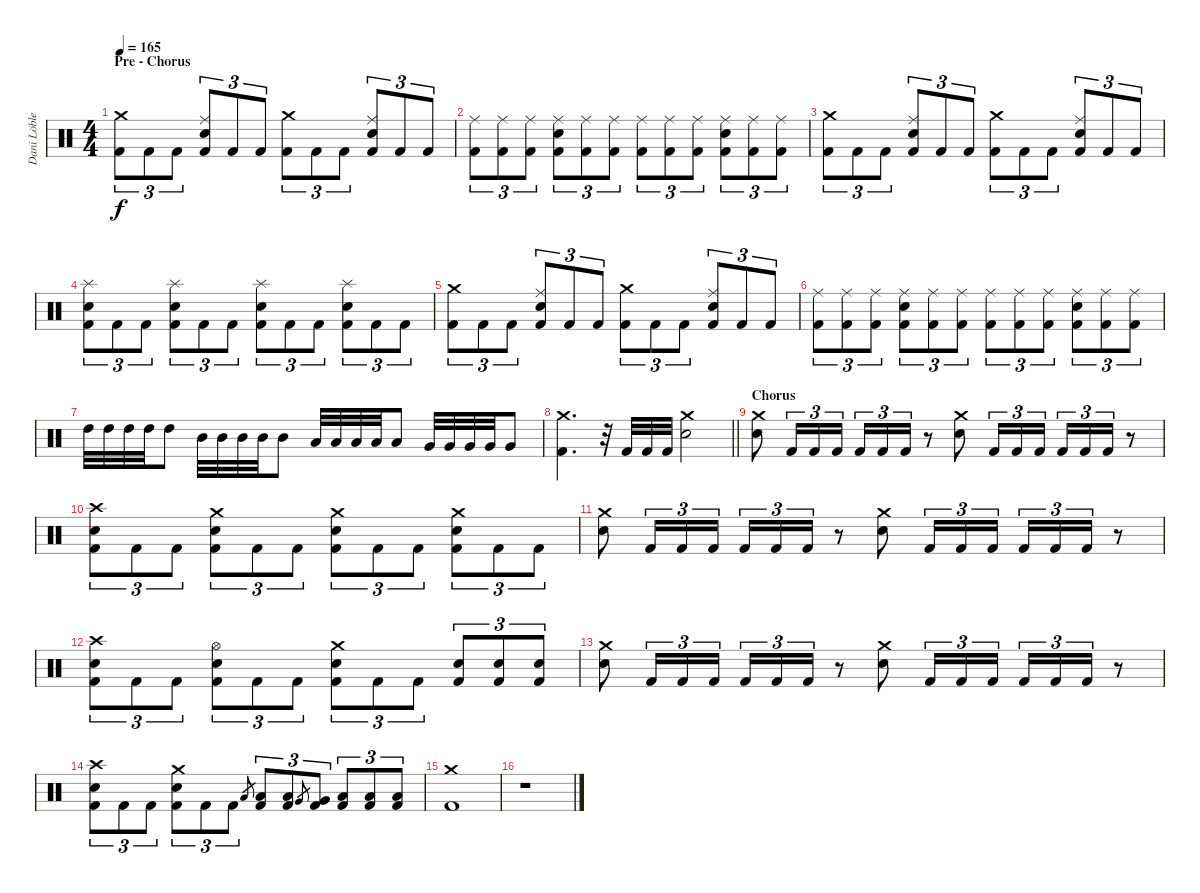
\track ("Dani Löble" "Dani Löble") {instrument percussion}
\staff {score}
\articulation defaults
\ts (4 4)
\section ("" "Pre - Chorus")
\tempo 165
\clef neutral
\ks c
("Crash medium (hit)" "Kick (hit) 2").8{tu (3 2) dy f} "Kick (hit) 2".8{tu (3 2)} "Kick (hit) 2".8{tu (3 2)} ("Ride (middle)" "Electric Snare (hit)" "Kick (hit) 2").8{tu (3 2)} "Kick (hit) 2".8{tu (3 2)} "Kick (hit) 2".8{tu (3 2)} ("Crash medium (hit)" "Kick (hit) 2").8{tu (3 2)} "Kick (hit) 2".8{tu (3 2)} "Kick (hit) 2".8{tu (3 2)} ("Ride (middle)" "Electric Snare (hit)" "Kick (hit) 2").8{tu (3 2)} "Kick (hit) 2".8{tu (3 2)} "Kick (hit) 2".8{tu (3 2)} |
("Ride (middle)" "Kick (hit) 2").8{tu (3 2)} ("Ride (middle)" "Kick (hit) 2").8{tu (3 2)} ("Ride (middle)" "Kick (hit) 2").8{tu (3 2)} ("Ride (middle)" "Electric Snare (hit)" "Kick (hit) 2").8{tu (3 2)} ("Ride (middle)" "Kick (hit) 2").8{tu (3 2)} ("Ride (middle)" "Kick (hit) 2").8{tu (3 2)} ("Ride (middle)" "Kick (hit) 2").8{tu (3 2)} ("Ride (middle)" "Kick (hit) 2").8{tu (3 2)} ("Ride (middle)" "Kick (hit) 2").8{tu (3 2)} ("Ride (middle)" "Electric Snare (hit)" "Kick (hit) 2").8{tu (3 2)} ("Ride (middle)" "Kick (hit) 2").8{tu (3 2)} ("Ride (middle)" "Kick (hit) 2").8{tu (3 2)} |
("Crash medium (hit)" "Kick (hit) 2").8{tu (3 2)} "Kick (hit) 2".8{tu (3 2)} "Kick (hit) 2".8{tu (3 2)} ("Ride (middle)" "Electric Snare (hit)" "Kick (hit) 2").8{tu (3 2)} "Kick (hit) 2".8{tu (3 2)} "Kick (hit) 2".8{tu (3 2)} ("Crash medium (hit)" "Kick (hit) 2").8{tu (3 2)} "Kick (hit) 2".8{tu (3 2)} "Kick (hit) 2".8{tu (3 2)} ("Ride (middle)" "Electric Snare (hit)" "Kick (hit) 2").8{tu (3 2)} "Kick (hit) 2".8{tu (3 2)} "Kick (hit) 2".8{tu (3 2)} |
("Splash (hit)" "Electric Snare (hit)" "Kick (hit) 2").8{tu (3 2)} "Kick (hit) 2".8{tu (3 2)} "Kick (hit) 2".8{tu (3 2)} ("Splash (hit)" "Electric Snare (hit)" "Kick (hit) 2").8{tu (3 2)} "Kick (hit) 2".8{tu (3 2)} "Kick (hit) 2".8{tu (3 2)} ("Splash (hit)" "Electric Snare (hit)" "Kick (hit) 2").8{tu (3 2)} "Kick (hit) 2".8{tu (3 2)} "Kick (hit) 2".8{tu (3 2)} ("Splash (hit)" "Electric Snare (hit)" "Kick (hit) 2").8{tu (3 2)} "Kick (hit) 2".8{tu (3 2)} "Kick (hit) 2".8{tu (3 2)} |
("Crash medium (hit)" "Kick (hit) 2").8{tu (3 2)} "Kick (hit) 2".8{tu (3 2)} "Kick (hit) 2".8{tu (3 2)} ("Ride (middle)" "Electric Snare (hit)" "Kick (hit) 2").8{tu (3 2)} "Kick (hit) 2".8{tu (3 2)} "Kick (hit) 2".8{tu (3 2)} ("Crash medium (hit)" "Kick (hit) 2").8{tu (3 2)} "Kick (hit) 2".8{tu (3 2)} "Kick (hit) 2".8{tu (3 2)} ("Ride (middle)" "Electric Snare (hit)" "Kick (hit) 2").8{tu (3 2)} "Kick (hit) 2".8{tu (3 2)} "Kick (hit) 2".8{tu (3 2)} |
("Ride (middle)" "Kick (hit) 2").8{tu (3 2)} ("Ride (middle)" "Kick (hit) 2").8{tu (3 2)} ("Ride (middle)" "Kick (hit) 2").8{tu (3 2)} ("Ride (middle)" "Electric Snare (hit)" "Kick (hit) 2").8{tu (3 2)} ("Ride (middle)" "Kick (hit) 2").8{tu (3 2)} ("Ride (middle)" "Kick (hit) 2").8{tu (3 2)} ("Ride (middle)" "Kick (hit) 2").8{tu (3 2)} ("Ride (middle)" "Kick (hit) 2").8{tu (3 2)} ("Ride (middle)" "Kick (hit) 2").8{tu (3 2)} ("Ride (middle)" "Electric Snare (hit)" "Kick (hit) 2").8{tu (3 2)} ("Ride (middle)" "Kick (hit) 2").8{tu (3 2)} ("Ride (middle)" "Kick (hit) 2").8{tu (3 2)} |
"High Tom (hit)".32 "High Tom (hit)".32 "High Tom (hit)".32 "High Tom (hit)".32 "High Tom (hit)".8 "Mid Tom (hit)".32 "Mid Tom (hit)".32 "Mid Tom (hit)".32 "Mid Tom (hit)".32 "Mid Tom (hit)".8 "Low Tom (hit)".32 "Low Tom (hit)".32 "Low Tom (hit)".32 "Low Tom (hit)".32 "Low Tom (hit)".8 "Very Low Tom (hit)".32 "Very Low Tom (hit)".32 "Very Low Tom (hit)".32 "Very Low Tom (hit)".32 "Very Low Tom (hit)".8 |
\barLineRight lightlight
("Crash medium (hit)" "Kick (hit) 2").4{d} r.32 "Kick (hit) 2".32 "Kick (hit) 2".32 "Kick (hit) 2".32 ("Crash medium (hit)" "Electric Snare (hit)").2 |
\section ("" "Chorus")
("Crash medium (hit)" "Electric Snare (hit)").8 "Kick (hit) 2".16{tu (3 2)} "Kick (hit) 2".16{tu (3 2)} "Kick (hit) 2".16{tu (3 2)} "Kick (hit) 2".16{tu (3 2)} "Kick (hit) 2".16{tu (3 2)} "Kick (hit) 2".16{tu (3 2)} r.8 ("Crash medium (hit)" "Electric Snare (hit)").8 "Kick (hit) 2".16{tu (3 2)} "Kick (hit) 2".16{tu (3 2)} "Kick (hit) 2".16{tu (3 2)} "Kick (hit) 2".16{tu (3 2)} "Kick (hit) 2".16{tu (3 2)} "Kick (hit) 2".16{tu (3 2)} r.8 |
("Crash high (hit)" "Electric Snare (hit)" "Kick (hit) 2").8{tu (3 2)} "Kick (hit) 2".8{tu (3 2)} "Kick (hit) 2".8{tu (3 2)} ("Crash medium (hit)" "Electric Snare (hit)" "Kick (hit) 2").8{tu (3 2)} "Kick (hit) 2".8{tu (3 2)} "Kick (hit) 2".8{tu (3 2)} ("Crash medium (hit)" "Electric Snare (hit)" "Kick (hit) 2").8{tu (3 2)} "Kick (hit) 2".8{tu (3 2)} "Kick (hit) 2".8{tu (3 2)} ("Crash medium (hit)" "Electric Snare (hit)" "Kick (hit) 2").8{tu (3 2)} "Kick (hit) 2".8{tu (3 2)} "Kick (hit) 2".8{tu (3 2)} |
("Crash medium (hit)" "Electric Snare (hit)").8 "Kick (hit) 2".16{tu (3 2)} "Kick (hit) 2".16{tu (3 2)} "Kick (hit) 2".16{tu (3 2)} "Kick (hit) 2".16{tu (3 2)} "Kick (hit) 2".16{tu (3 2)} "Kick (hit) 2".16{tu (3 2)} r.8 ("Crash medium (hit)" "Electric Snare (hit)").8 "Kick (hit) 2".16{tu (3 2)} "Kick (hit) 2".16{tu (3 2)} "Kick (hit) 2".16{tu (3 2)} "Kick (hit) 2".16{tu (3 2)} "Kick (hit) 2".16{tu (3 2)} "Kick (hit) 2".16{tu (3 2)} r.8 |
("Crash high (hit)" "Electric Snare (hit)" "Kick (hit) 2").8{tu (3 2)} "Kick (hit) 2".8{tu (3 2)} "Kick (hit) 2".8{tu (3 2)} ("Hi-Hat (open)" "Electric Snare (hit)" "Kick (hit) 2").8{tu (3 2)} "Kick (hit) 2".8{tu (3 2)} "Kick (hit) 2".8{tu (3 2)} ("Crash medium (hit)" "Electric Snare (hit)" "Kick (hit) 2").8{tu (3 2)} "Kick (hit) 2".8{tu (3 2)} "Kick (hit) 2".8{tu (3 2)} ("Electric Snare (hit)" "Kick (hit) 2").8{tu (3 2)} ("Electric Snare (hit)" "Kick (hit) 2").8{tu (3 2)} ("Electric Snare (hit)" "Kick (hit) 2").8{tu (3 2)} |
("Crash medium (hit)" "Electric Snare (hit)").8 "Kick (hit) 2".16{tu (3 2)} "Kick (hit) 2".16{tu (3 2)} "Kick (hit) 2".16{tu (3 2)} "Kick (hit) 2".16{tu (3 2)} "Kick (hit) 2".16{tu (3 2)} "Kick (hit) 2".16{tu (3 2)} r.8 ("Crash medium (hit)" "Electric Snare (hit)").8 "Kick (hit) 2".16{tu (3 2)} "Kick (hit) 2".16{tu (3 2)} "Kick (hit) 2".16{tu (3 2)} "Kick (hit) 2".16{tu (3 2)} "Kick (hit) 2".16{tu (3 2)} "Kick (hit) 2".16{tu (3 2)} r.8 |
("Crash high (hit)" "Electric Snare (hit)" "Kick (hit) 2").8{tu (3 2)} "Kick (hit) 2".8{tu (3 2)} "Kick (hit) 2".8{tu (3 2)} ("Crash medium (hit)" "Electric Snare (hit)" "Kick (hit) 2").8{tu (3 2)} "Kick (hit) 2".8{tu (3 2)} "Kick (hit) 2".8{tu (3 2)} "Low Tom (hit)".8{gr} ("Low Tom (hit)" "Kick (hit) 2").8{tu (3 2)} ("Low Tom (hit)" "Kick (hit) 2").8{tu (3 2)} "Very Low Tom (hit)".8{gr} ("Very Low Tom (hit)" "Kick (hit) 2").8{tu (3 2)} ("Low Floor Tom (hit)" "Kick (hit) 2").8{tu (3 2)} ("Low Floor Tom (hit)" "Kick (hit) 2").8{tu (3 2)} ("Low Floor Tom (hit)" "Kick (hit) 2").8{tu (3 2)} |
("Crash medium (hit)" "Kick (hit) 2").1 |
r.1
